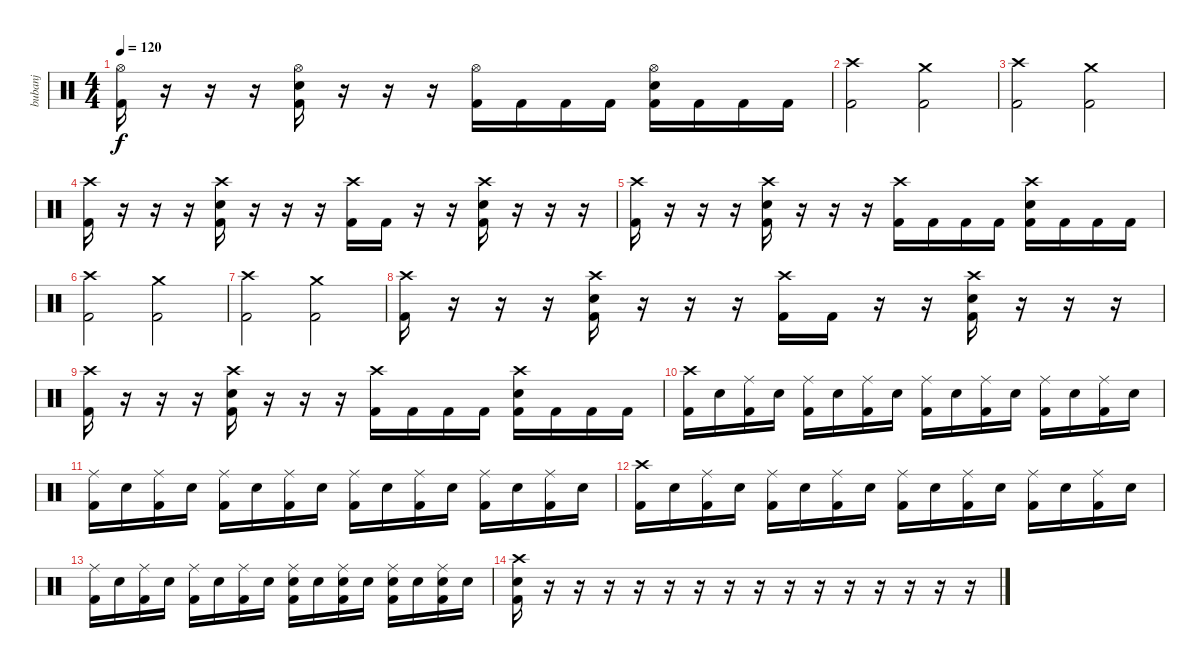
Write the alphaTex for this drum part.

\track ("bubanj" "bubanj") {instrument percussion}
\staff {score}
\articulation defaults
\ts (4 4)
\tempo 120
\clef neutral
\ks c
("Hi-Hat (open)" "Kick (hit) 2").16{dy f} r.16 r.16 r.16 ("Hi-Hat (open)" "Electric Snare (hit)" "Kick (hit) 2").16 r.16 r.16 r.16 ("Hi-Hat (open)" "Kick (hit) 2").16 "Kick (hit) 2".16 "Kick (hit) 2".16 "Kick (hit) 2".16 ("Hi-Hat (open)" "Electric Snare (hit)" "Kick (hit) 2").16 "Kick (hit) 2".16 "Kick (hit) 2".16 "Kick (hit) 2".16 |
("Crash high (hit)" "Kick (hit) 2").2 ("Crash medium (hit)" "Kick (hit) 2").2 |
("Crash high (hit)" "Kick (hit) 2").2 ("Crash medium (hit)" "Kick (hit) 2").2 |
("Crash high (hit)" "Kick (hit) 2").16 r.16 r.16 r.16 ("Crash high (hit)" "Electric Snare (hit)" "Kick (hit) 2").16 r.16 r.16 r.16 ("Crash high (hit)" "Kick (hit) 2").16 "Kick (hit) 2".16 r.16 r.16 ("Crash high (hit)" "Electric Snare (hit)" "Kick (hit) 2").16 r.16 r.16 r.16 |
("Crash high (hit)" "Kick (hit) 2").16 r.16 r.16 r.16 ("Crash high (hit)" "Electric Snare (hit)" "Kick (hit) 2").16 r.16 r.16 r.16 ("Crash high (hit)" "Kick (hit) 2").16 "Kick (hit) 2".16 "Kick (hit) 2".16 "Kick (hit) 2".16 ("Crash high (hit)" "Electric Snare (hit)" "Kick (hit) 2").16 "Kick (hit) 2".16 "Kick (hit) 2".16 "Kick (hit) 2".16 |
("Crash high (hit)" "Kick (hit) 2").2 ("Crash medium (hit)" "Kick (hit) 2").2 |
("Crash high (hit)" "Kick (hit) 2").2 ("Crash medium (hit)" "Kick (hit) 2").2 |
("Crash high (hit)" "Kick (hit) 2").16 r.16 r.16 r.16 ("Crash high (hit)" "Electric Snare (hit)" "Kick (hit) 2").16 r.16 r.16 r.16 ("Crash high (hit)" "Kick (hit) 2").16 "Kick (hit) 2".16 r.16 r.16 ("Crash high (hit)" "Electric Snare (hit)" "Kick (hit) 2").16 r.16 r.16 r.16 |
("Crash high (hit)" "Kick (hit) 2").16 r.16 r.16 r.16 ("Crash high (hit)" "Electric Snare (hit)" "Kick (hit) 2").16 r.16 r.16 r.16 ("Crash high (hit)" "Kick (hit) 2").16 "Kick (hit) 2".16 "Kick (hit) 2".16 "Kick (hit) 2".16 ("Crash high (hit)" "Electric Snare (hit)" "Kick (hit) 2").16 "Kick (hit) 2".16 "Kick (hit) 2".16 "Kick (hit) 2".16 |
("Crash high (hit)" "Kick (hit) 2").16 "Electric Snare (hit)".16 ("Ride (middle)" "Kick (hit) 2").16 "Electric Snare (hit)".16 ("Ride (middle)" "Kick (hit) 2").16 "Electric Snare (hit)".16 ("Ride (middle)" "Kick (hit) 2").16 "Electric Snare (hit)".16 ("Ride (middle)" "Kick (hit) 2").16 "Electric Snare (hit)".16 ("Ride (middle)" "Kick (hit) 2").16 "Electric Snare (hit)".16 ("Ride (middle)" "Kick (hit) 2").16 "Electric Snare (hit)".16 ("Ride (middle)" "Kick (hit) 2").16 "Electric Snare (hit)".16 |
("Ride (middle)" "Kick (hit) 2").16 "Electric Snare (hit)".16 ("Ride (middle)" "Kick (hit) 2").16 "Electric Snare (hit)".16 ("Ride (middle)" "Kick (hit) 2").16 "Electric Snare (hit)".16 ("Ride (middle)" "Kick (hit) 2").16 "Electric Snare (hit)".16 ("Ride (middle)" "Kick (hit) 2").16 "Electric Snare (hit)".16 ("Ride (middle)" "Kick (hit) 2").16 "Electric Snare (hit)".16 ("Ride (middle)" "Kick (hit) 2").16 "Electric Snare (hit)".16 ("Ride (middle)" "Kick (hit) 2").16 "Electric Snare (hit)".16 |
("Crash high (hit)" "Kick (hit) 2").16 "Electric Snare (hit)".16 ("Ride (middle)" "Kick (hit) 2").16 "Electric Snare (hit)".16 ("Ride (middle)" "Kick (hit) 2").16 "Electric Snare (hit)".16 ("Ride (middle)" "Kick (hit) 2").16 "Electric Snare (hit)".16 ("Ride (middle)" "Kick (hit) 2").16 "Electric Snare (hit)".16 ("Ride (middle)" "Kick (hit) 2").16 "Electric Snare (hit)".16 ("Ride (middle)" "Kick (hit) 2").16 "Electric Snare (hit)".16 ("Ride (middle)" "Kick (hit) 2").16 "Electric Snare (hit)".16 |
("Ride (middle)" "Kick (hit) 2").16 "Electric Snare (hit)".16 ("Ride (middle)" "Kick (hit) 2").16 "Electric Snare (hit)".16 ("Ride (middle)" "Kick (hit) 2").16 "Electric Snare (hit)".16 ("Ride (middle)" "Kick (hit) 2").16 "Electric Snare (hit)".16 ("Ride (middle)" "Electric Snare (hit)" "Kick (hit) 2").16 "Electric Snare (hit)".16 ("Ride (middle)" "Electric Snare (hit)" "Kick (hit) 2").16 "Electric Snare (hit)".16 ("Ride (middle)" "Electric Snare (hit)" "Kick (hit) 2").16 "Electric Snare (hit)".16 ("Ride (middle)" "Electric Snare (hit)" "Kick (hit) 2").16 "Electric Snare (hit)".16 |
("Crash high (hit)" "Electric Snare (hit)" "Kick (hit) 2").16 r.16 r.16 r.16 r.16 r.16 r.16 r.16 r.16 r.16 r.16 r.16 r.16 r.16 r.16 r.16
